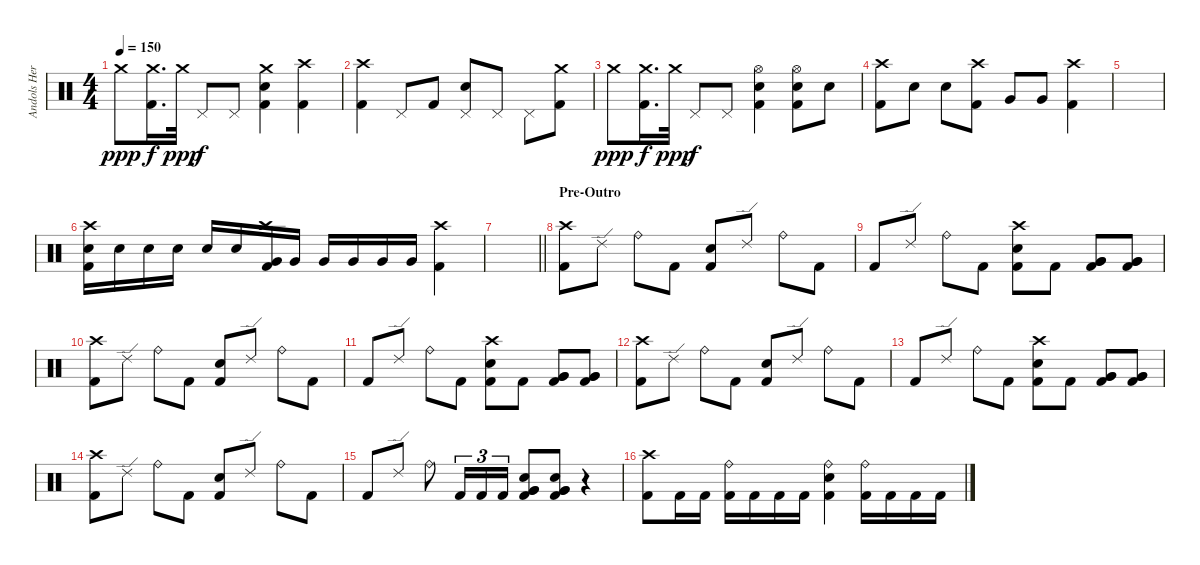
\track ("Andols Herrick" "Andols Her") {instrument percussion}
\staff {score}
\articulation defaults
\ts (4 4)
\tempo 150
\clef neutral
\ks c "Crash medium (hit)".8{dy ppp}
("Crash medium (hit)" "Kick (hit) 2").16{d dy f} "Crash medium (hit)".32{dy ppp} "Pedal Hi-Hat (hit)".8{dy f} "Pedal Hi-Hat (hit)".8 ("Crash medium (hit)" "Electric Snare (hit)" "Kick (hit) 2").4 ("Crash high (hit)" "Kick (hit) 2").4 |
("Crash high (hit)" "Kick (hit) 2").4 "Pedal Hi-Hat (hit)".8 "Kick (hit) 2".8 ("Pedal Hi-Hat (hit)" "Electric Snare (hit)").8 "Pedal Hi-Hat (hit)".8 "Pedal Hi-Hat (hit)".8 ("Crash medium (hit)" "Kick (hit) 2").8 |
"Crash medium (hit)".8{dy ppp} ("Crash medium (hit)" "Kick (hit) 2").16{d dy f} "Crash medium (hit)".32{dy ppp} "Pedal Hi-Hat (hit)".8{dy f} "Pedal Hi-Hat (hit)".8 ("Hi-Hat (open)" "Electric Snare (hit)" "Kick (hit) 2").4 ("Hi-Hat (open)" "Electric Snare (hit)" "Kick (hit) 2").8 "Electric Snare (hit)".8 |
("Crash high (hit)" "Kick (hit) 2").8 "Electric Snare (hit)".8 "Electric Snare (hit)".8 ("Crash high (hit)" "Kick (hit) 2").8 "Very Low Tom (hit)".8 "Very Low Tom (hit)".8 ("Crash high (hit)" "Kick (hit) 2").4 |
|
("Crash high (hit)" "Electric Snare (hit)" "Kick (hit) 2").16 "Electric Snare (hit)".16 "Electric Snare (hit)".16 "Electric Snare (hit)".16 "Electric Snare (hit)".16 "Electric Snare (hit)".16 ("Crash high (hit)" "Very Low Tom (hit)" "Kick (hit) 2").16 "Very Low Tom (hit)".16 "Very Low Tom (hit)".16 "Very Low Tom (hit)".16 "Very Low Tom (hit)".16 "Very Low Tom (hit)".16 ("Crash high (hit)" "Kick (hit) 2").4 |
\barLineRight lightlight
|
\section ("" "Pre-Outro")
("Crash high (hit)" "Kick (hit) 2").8 "Ride (edge) 2".8 "Ride (bell)".8 "Kick (hit) 2".8 ("Electric Snare (hit)" "Kick (hit) 2").8 "Ride (edge) 2".8 "Ride (bell)".8 "Kick (hit) 2".8 |
"Kick (hit) 2".8 "Ride (edge) 2".8 "Ride (bell)".8 "Kick (hit) 2".8 ("Crash high (hit)" "Electric Snare (hit)" "Kick (hit) 2").8 "Kick (hit) 2".8 ("Very Low Tom (hit)" "Very Low Tom (hit)" "Kick (hit) 2").8 ("Very Low Tom (hit)" "Very Low Tom (hit)" "Kick (hit) 2").8 |
("Crash high (hit)" "Kick (hit) 2").8 "Ride (edge) 2".8 "Ride (bell)".8 "Kick (hit) 2".8 ("Electric Snare (hit)" "Kick (hit) 2").8 "Ride (edge) 2".8 "Ride (bell)".8 "Kick (hit) 2".8 |
"Kick (hit) 2".8 "Ride (edge) 2".8 "Ride (bell)".8 "Kick (hit) 2".8 ("Crash high (hit)" "Electric Snare (hit)" "Kick (hit) 2").8 "Kick (hit) 2".8 ("Very Low Tom (hit)" "Very Low Tom (hit)" "Kick (hit) 2").8 ("Very Low Tom (hit)" "Very Low Tom (hit)" "Kick (hit) 2").8 |
("Crash high (hit)" "Kick (hit) 2").8 "Ride (edge) 2".8 "Ride (bell)".8 "Kick (hit) 2".8 ("Electric Snare (hit)" "Kick (hit) 2").8 "Ride (edge) 2".8 "Ride (bell)".8 "Kick (hit) 2".8 |
"Kick (hit) 2".8 "Ride (edge) 2".8 "Ride (bell)".8 "Kick (hit) 2".8 ("Crash high (hit)" "Electric Snare (hit)" "Kick (hit) 2").8 "Kick (hit) 2".8 ("Very Low Tom (hit)" "Very Low Tom (hit)" "Kick (hit) 2").8 ("Very Low Tom (hit)" "Very Low Tom (hit)" "Kick (hit) 2").8 |
("Crash high (hit)" "Kick (hit) 2").8 "Ride (edge) 2".8 "Ride (bell)".8 "Kick (hit) 2".8 ("Electric Snare (hit)" "Kick (hit) 2").8 "Ride (edge) 2".8 "Ride (bell)".8 "Kick (hit) 2".8 |
"Kick (hit) 2".8 "Ride (edge) 2".8 "Ride (bell)".8 "Kick (hit) 2".16{tu (3 2)} "Kick (hit) 2".16{tu (3 2)} "Kick (hit) 2".16{tu (3 2)} ("Electric Snare (hit)" "Very Low Tom (hit)" "Very Low Tom (hit)" "Kick (hit) 2").8 ("Electric Snare (hit)" "Very Low Tom (hit)" "Very Low Tom (hit)" "Kick (hit) 2").8 r.4 |
("Crash high (hit)" "Kick (hit) 2").8 "Kick (hit) 2".16 "Kick (hit) 2".16 ("Ride (bell)" "Kick (hit) 2").16 "Kick (hit) 2".16 "Kick (hit) 2".16 "Kick (hit) 2".16 ("Ride (bell)" "Electric Snare (hit)" "Kick (hit) 2").4 ("Ride (bell)" "Kick (hit) 2").16 "Kick (hit) 2".16 "Kick (hit) 2".16 "Kick (hit) 2".16
